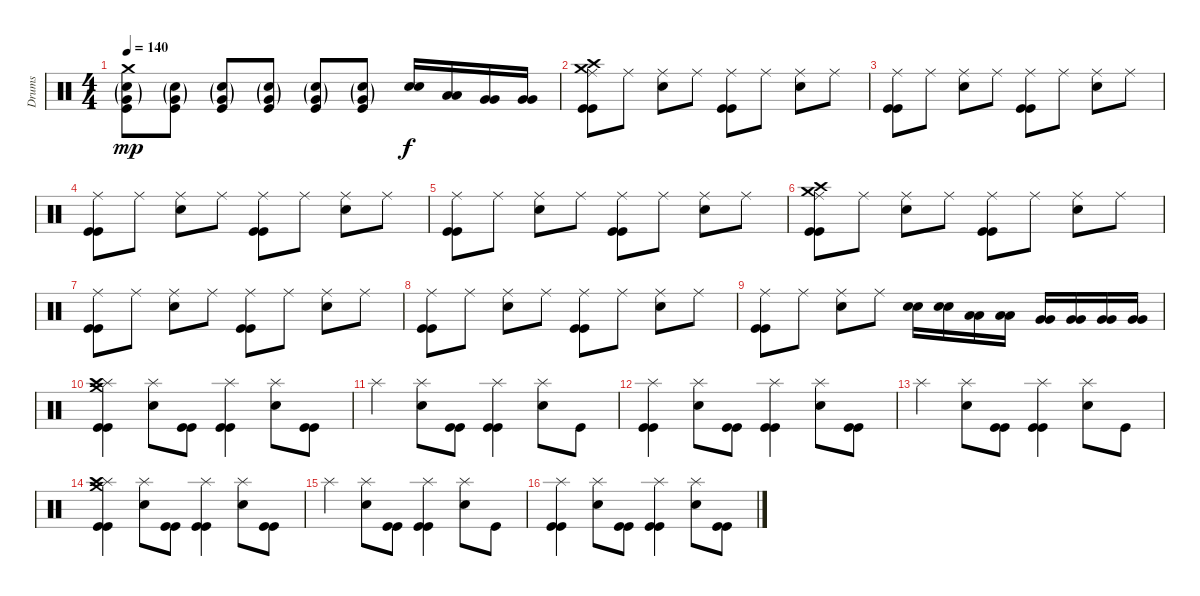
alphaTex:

\track ("Drums" "Drums") {instrument percussion}
\staff {score}
\articulation defaults
\ts (4 4)
\tempo 140
\clef neutral
\ks c
("Crash medium (hit)" "Very Low Tom (hit)"{g} "Snare (hit) 2"{g} "Kick (hit)").8{dy mp} ("Very Low Tom (hit)"{g} "Snare (hit) 2"{g} "Kick (hit)").8 ("Very Low Tom (hit)"{g} "Snare (hit) 2"{g} "Kick (hit)").8 ("Very Low Tom (hit)"{g} "Snare (hit) 2"{g} "Kick (hit)").8 ("Very Low Tom (hit)"{g} "Snare (hit) 2"{g} "Kick (hit)").8 ("Very Low Tom (hit)"{g} "Snare (hit) 2"{g} "Kick (hit)").8 ("Snare (hit) 2" "Snare (hit) 2").16{dy f} ("Low Tom (hit)" "Low Tom (hit)").16 ("Very Low Tom (hit)" "Very Low Tom (hit)").16 ("Very Low Tom (hit)" "Very Low Tom (hit)").16 |
("Ride (middle)" "Crash high (hit)" "Crash medium (hit)" "Kick (hit)" "Kick (hit)").8 "Ride (middle)".8 ("Ride (middle)" "Snare (hit) 2").8 "Ride (middle)".8 ("Ride (middle)" "Kick (hit)" "Kick (hit)").8 "Ride (middle)".8 ("Ride (middle)" "Snare (hit) 2").8 "Ride (middle)".8 |
("Ride (middle)" "Kick (hit)" "Kick (hit)").8 "Ride (middle)".8 ("Ride (middle)" "Snare (hit) 2").8 "Ride (middle)".8 ("Ride (middle)" "Kick (hit)" "Kick (hit)").8 "Ride (middle)".8 ("Ride (middle)" "Snare (hit) 2").8 "Ride (middle)".8 |
("Ride (middle)" "Kick (hit)" "Kick (hit)").8 "Ride (middle)".8 ("Ride (middle)" "Snare (hit) 2").8 "Ride (middle)".8 ("Ride (middle)" "Kick (hit)" "Kick (hit)").8 "Ride (middle)".8 ("Ride (middle)" "Snare (hit) 2").8 "Ride (middle)".8 |
("Ride (middle)" "Kick (hit)" "Kick (hit)").8 "Ride (middle)".8 ("Ride (middle)" "Snare (hit) 2").8 "Ride (middle)".8 ("Ride (middle)" "Kick (hit)" "Kick (hit)").8 "Ride (middle)".8 ("Ride (middle)" "Snare (hit) 2").8 "Ride (middle)".8 |
("Ride (middle)" "Crash high (hit)" "Crash medium (hit)" "Kick (hit)" "Kick (hit)").8 "Ride (middle)".8 ("Ride (middle)" "Snare (hit) 2").8 "Ride (middle)".8 ("Ride (middle)" "Kick (hit)" "Kick (hit)").8 "Ride (middle)".8 ("Ride (middle)" "Snare (hit) 2").8 "Ride (middle)".8 |
("Ride (middle)" "Kick (hit)" "Kick (hit)").8 "Ride (middle)".8 ("Ride (middle)" "Snare (hit) 2").8 "Ride (middle)".8 ("Ride (middle)" "Kick (hit)" "Kick (hit)").8 "Ride (middle)".8 ("Ride (middle)" "Snare (hit) 2").8 "Ride (middle)".8 |
("Ride (middle)" "Kick (hit)" "Kick (hit)").8 "Ride (middle)".8 ("Ride (middle)" "Snare (hit) 2").8 "Ride (middle)".8 ("Ride (middle)" "Kick (hit)" "Kick (hit)").8 "Ride (middle)".8 ("Ride (middle)" "Snare (hit) 2").8 "Ride (middle)".8 |
("Ride (middle)" "Kick (hit)" "Kick (hit)").8 "Ride (middle)".8 ("Ride (middle)" "Snare (hit) 2").8 "Ride (middle)".8 ("Snare (hit) 2" "Snare (hit) 2").16 ("Snare (hit) 2" "Snare (hit) 2").16 ("Low Tom (hit)" "Low Tom (hit)").16 ("Low Tom (hit)" "Low Tom (hit)").16 ("Very Low Tom (hit)" "Very Low Tom (hit)").16 ("Very Low Tom (hit)" "Very Low Tom (hit)").16 ("Very Low Tom (hit)" "Very Low Tom (hit)").16 ("Very Low Tom (hit)" "Very Low Tom (hit)").16 |
("Splash (hit)" "Crash high (hit)" "Crash medium (hit)" "Kick (hit)" "Kick (hit)").4 ("Splash (hit)" "Snare (hit) 2").8 ("Kick (hit)" "Kick (hit)").8 ("Splash (hit)" "Kick (hit)" "Kick (hit)").4 ("Splash (hit)" "Snare (hit) 2").8 ("Kick (hit)" "Kick (hit)").8 |
"Splash (hit)".4 ("Splash (hit)" "Snare (hit) 2").8 ("Kick (hit)" "Kick (hit)").8 ("Splash (hit)" "Kick (hit)" "Kick (hit)").4 ("Splash (hit)" "Snare (hit) 2").8 "Kick (hit)".8 |
("Splash (hit)" "Kick (hit)" "Kick (hit)").4 ("Splash (hit)" "Snare (hit) 2").8 ("Kick (hit)" "Kick (hit)").8 ("Splash (hit)" "Kick (hit)" "Kick (hit)").4 ("Splash (hit)" "Snare (hit) 2").8 ("Kick (hit)" "Kick (hit)").8 |
"Splash (hit)".4 ("Splash (hit)" "Snare (hit) 2").8 ("Kick (hit)" "Kick (hit)").8 ("Splash (hit)" "Kick (hit)" "Kick (hit)").4 ("Splash (hit)" "Snare (hit) 2").8 "Kick (hit)".8 |
("Splash (hit)" "Crash high (hit)" "Crash medium (hit)" "Kick (hit)" "Kick (hit)").4 ("Splash (hit)" "Snare (hit) 2").8 ("Kick (hit)" "Kick (hit)").8 ("Splash (hit)" "Kick (hit)" "Kick (hit)").4 ("Splash (hit)" "Snare (hit) 2").8 ("Kick (hit)" "Kick (hit)").8 |
"Splash (hit)".4 ("Splash (hit)" "Snare (hit) 2").8 ("Kick (hit)" "Kick (hit)").8 ("Splash (hit)" "Kick (hit)" "Kick (hit)").4 ("Splash (hit)" "Snare (hit) 2").8 "Kick (hit)".8 |
("Splash (hit)" "Kick (hit)" "Kick (hit)").4 ("Splash (hit)" "Snare (hit) 2").8 ("Kick (hit)" "Kick (hit)").8 ("Splash (hit)" "Kick (hit)" "Kick (hit)").4 ("Splash (hit)" "Snare (hit) 2").8 ("Kick (hit)" "Kick (hit)").8
